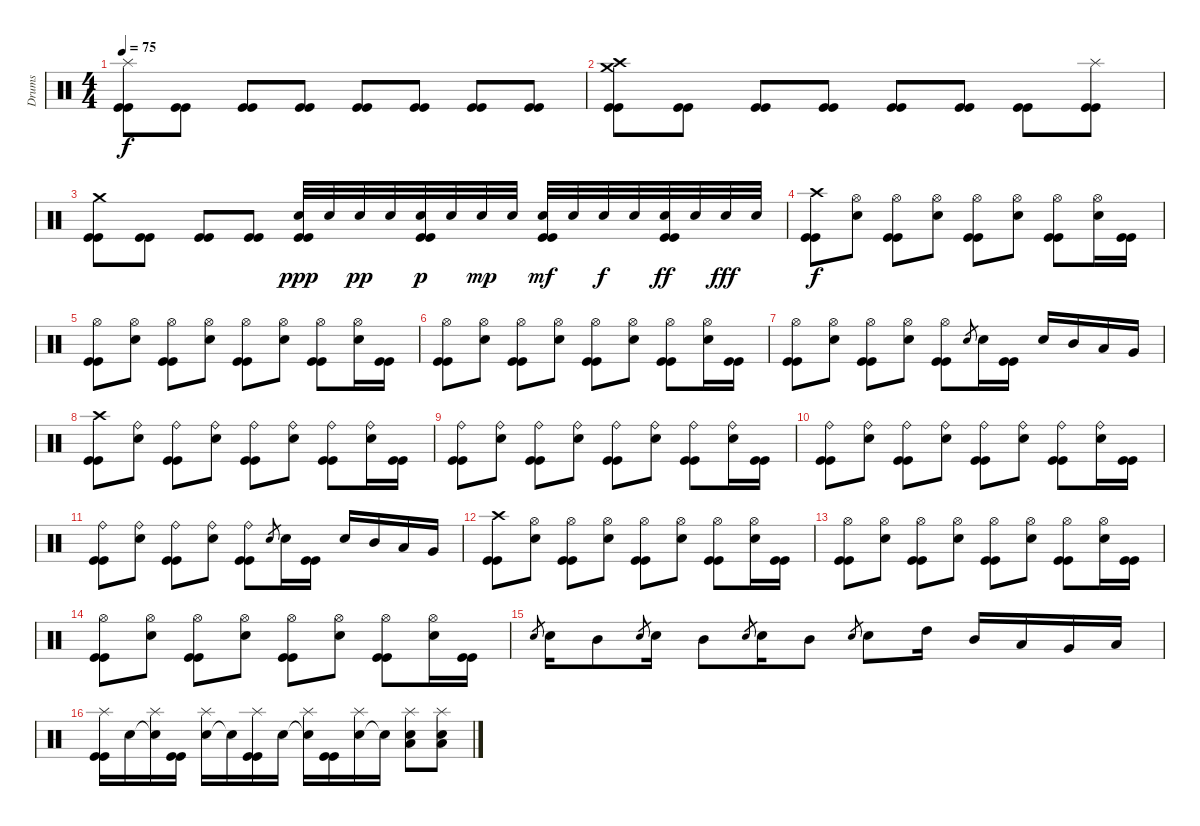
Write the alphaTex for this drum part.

\track ("Drums" "Drums") {instrument percussion}
\staff {score}
\articulation defaults
\ts (4 4)
\tempo 75
\clef neutral
\ks c
("Splash (hit)" "Kick (hit)" "Kick (hit)").8{dy f} ("Kick (hit)" "Kick (hit)").8 ("Kick (hit)" "Kick (hit)").8 ("Kick (hit)" "Kick (hit)").8 ("Kick (hit)" "Kick (hit)").8 ("Kick (hit)" "Kick (hit)").8 ("Kick (hit)" "Kick (hit)").8 ("Kick (hit)" "Kick (hit)").8 |
("Crash high (hit)" "Crash medium (hit)" "Kick (hit)" "Kick (hit)").8 ("Kick (hit)" "Kick (hit)").8 ("Kick (hit)" "Kick (hit)").8 ("Kick (hit)" "Kick (hit)").8 ("Kick (hit)" "Kick (hit)").8 ("Kick (hit)" "Kick (hit)").8 ("Kick (hit)" "Kick (hit)").8 ("Splash (hit)" "Kick (hit)" "Kick (hit)").8 |
("Crash medium (hit)" "Kick (hit)" "Kick (hit)").8 ("Kick (hit)" "Kick (hit)").8 ("Kick (hit)" "Kick (hit)").8 ("Kick (hit)" "Kick (hit)").8 ("Kick (hit)" "Kick (hit)" "Snare (hit) 2").32{dy ppp} "Snare (hit) 2".32 "Snare (hit) 2".32{dy pp} "Snare (hit) 2".32 ("Kick (hit)" "Kick (hit)" "Snare (hit) 2").32{dy p} "Snare (hit) 2".32 "Snare (hit) 2".32{dy mp} "Snare (hit) 2".32 ("Kick (hit)" "Kick (hit)" "Snare (hit) 2").32{dy mf} "Snare (hit) 2".32 "Snare (hit) 2".32{dy f} "Snare (hit) 2".32 ("Kick (hit)" "Kick (hit)" "Snare (hit) 2").32{dy ff} "Snare (hit) 2".32 "Snare (hit) 2".32{dy fff} "Snare (hit) 2".32 |
("Crash high (hit)" "Kick (hit)" "Kick (hit)").8{dy f} ("Hi-Hat (open)" "Snare (hit) 2").8 ("Hi-Hat (open)" "Kick (hit)" "Kick (hit)").8 ("Hi-Hat (open)" "Snare (hit) 2").8 ("Hi-Hat (open)" "Kick (hit)" "Kick (hit)").8 ("Hi-Hat (open)" "Snare (hit) 2").8 ("Hi-Hat (open)" "Kick (hit)" "Kick (hit)").8 ("Hi-Hat (open)" "Snare (hit) 2").16 ("Kick (hit)" "Kick (hit)").16 |
("Hi-Hat (open)" "Kick (hit)" "Kick (hit)").8 ("Hi-Hat (open)" "Snare (hit) 2").8 ("Hi-Hat (open)" "Kick (hit)" "Kick (hit)").8 ("Hi-Hat (open)" "Snare (hit) 2").8 ("Hi-Hat (open)" "Kick (hit)" "Kick (hit)").8 ("Hi-Hat (open)" "Snare (hit) 2").8 ("Hi-Hat (open)" "Kick (hit)" "Kick (hit)").8 ("Hi-Hat (open)" "Snare (hit) 2").16 ("Kick (hit)" "Kick (hit)").16 |
("Hi-Hat (open)" "Kick (hit)" "Kick (hit)").8 ("Hi-Hat (open)" "Snare (hit) 2").8 ("Hi-Hat (open)" "Kick (hit)" "Kick (hit)").8 ("Hi-Hat (open)" "Snare (hit) 2").8 ("Hi-Hat (open)" "Kick (hit)" "Kick (hit)").8 ("Hi-Hat (open)" "Snare (hit) 2").8 ("Hi-Hat (open)" "Kick (hit)" "Kick (hit)").8 ("Hi-Hat (open)" "Snare (hit) 2").16 ("Kick (hit)" "Kick (hit)").16 |
("Hi-Hat (open)" "Kick (hit)" "Kick (hit)").8 ("Hi-Hat (open)" "Snare (hit) 2").8 ("Hi-Hat (open)" "Kick (hit)" "Kick (hit)").8 ("Hi-Hat (open)" "Snare (hit) 2").8 ("Hi-Hat (open)" "Kick (hit)" "Kick (hit)").8 "Snare (hit) 2".8{gr} "Snare (hit) 2".16 ("Kick (hit)" "Kick (hit)").16 "Snare (hit) 2".16 "Mid Tom (hit)".16 "Low Tom (hit)".16 "Very Low Tom (hit)".16 |
("Crash high (hit)" "Kick (hit)" "Kick (hit)").8 ("Ride (bell)" "Snare (hit) 2").8 ("Ride (bell)" "Kick (hit)" "Kick (hit)").8 ("Ride (bell)" "Snare (hit) 2").8 ("Ride (bell)" "Kick (hit)" "Kick (hit)").8 ("Ride (bell)" "Snare (hit) 2").8 ("Ride (bell)" "Kick (hit)" "Kick (hit)").8 ("Ride (bell)" "Snare (hit) 2").16 ("Kick (hit)" "Kick (hit)").16 |
("Ride (bell)" "Kick (hit)" "Kick (hit)").8 ("Ride (bell)" "Snare (hit) 2").8 ("Ride (bell)" "Kick (hit)" "Kick (hit)").8 ("Ride (bell)" "Snare (hit) 2").8 ("Ride (bell)" "Kick (hit)" "Kick (hit)").8 ("Ride (bell)" "Snare (hit) 2").8 ("Ride (bell)" "Kick (hit)" "Kick (hit)").8 ("Ride (bell)" "Snare (hit) 2").16 ("Kick (hit)" "Kick (hit)").16 |
("Ride (bell)" "Kick (hit)" "Kick (hit)").8 ("Ride (bell)" "Snare (hit) 2").8 ("Ride (bell)" "Kick (hit)" "Kick (hit)").8 ("Ride (bell)" "Snare (hit) 2").8 ("Ride (bell)" "Kick (hit)" "Kick (hit)").8 ("Ride (bell)" "Snare (hit) 2").8 ("Ride (bell)" "Kick (hit)" "Kick (hit)").8 ("Ride (bell)" "Snare (hit) 2").16 ("Kick (hit)" "Kick (hit)").16 |
("Ride (bell)" "Kick (hit)" "Kick (hit)").8 ("Ride (bell)" "Snare (hit) 2").8 ("Ride (bell)" "Kick (hit)" "Kick (hit)").8 ("Ride (bell)" "Snare (hit) 2").8 ("Ride (bell)" "Kick (hit)" "Kick (hit)").8 "Snare (hit) 2".8{gr} "Snare (hit) 2".16 ("Kick (hit)" "Kick (hit)").16 "Snare (hit) 2".16 "Mid Tom (hit)".16 "Low Tom (hit)".16 "Very Low Tom (hit)".16 |
("Crash high (hit)" "Kick (hit)" "Kick (hit)").8 ("Hi-Hat (open)" "Snare (hit) 2").8 ("Hi-Hat (open)" "Kick (hit)" "Kick (hit)").8 ("Hi-Hat (open)" "Snare (hit) 2").8 ("Hi-Hat (open)" "Kick (hit)" "Kick (hit)").8 ("Hi-Hat (open)" "Snare (hit) 2").8 ("Hi-Hat (open)" "Kick (hit)" "Kick (hit)").8 ("Hi-Hat (open)" "Snare (hit) 2").16 ("Kick (hit)" "Kick (hit)").16 |
("Hi-Hat (open)" "Kick (hit)" "Kick (hit)").8 ("Hi-Hat (open)" "Snare (hit) 2").8 ("Hi-Hat (open)" "Kick (hit)" "Kick (hit)").8 ("Hi-Hat (open)" "Snare (hit) 2").8 ("Hi-Hat (open)" "Kick (hit)" "Kick (hit)").8 ("Hi-Hat (open)" "Snare (hit) 2").8 ("Hi-Hat (open)" "Kick (hit)" "Kick (hit)").8 ("Hi-Hat (open)" "Snare (hit) 2").16 ("Kick (hit)" "Kick (hit)").16 |
("Hi-Hat (open)" "Kick (hit)" "Kick (hit)").8 ("Hi-Hat (open)" "Snare (hit) 2").8 ("Hi-Hat (open)" "Kick (hit)" "Kick (hit)").8 ("Hi-Hat (open)" "Snare (hit) 2").8 ("Hi-Hat (open)" "Kick (hit)" "Kick (hit)").8 ("Hi-Hat (open)" "Snare (hit) 2").8 ("Hi-Hat (open)" "Kick (hit)" "Kick (hit)").8 ("Hi-Hat (open)" "Snare (hit) 2").16 ("Kick (hit)" "Kick (hit)").16 |
"Snare (hit) 2".8{gr} "Snare (hit) 2".16 "Mid Tom (hit)".8 "Snare (hit) 2".8{gr} "Snare (hit) 2".16 "Mid Tom (hit)".8 "Snare (hit) 2".8{gr} "Snare (hit) 2".16 "Mid Tom (hit)".8 "Snare (hit) 2".8{gr} "Snare (hit) 2".8 "High Tom (hit)".16 "Mid Tom (hit)".16 "Low Tom (hit)".16 "Very Low Tom (hit)".16 "Low Floor Tom (hit)".16 |
("Kick (hit)" "Kick (hit)" "Splash (hit)").16 "Snare (hit) 2".16 ("Snare (hit)"{t} "Splash (hit)").16 ("Kick (hit)" "Kick (hit)").16 ("Snare (hit) 2" "Splash (hit)").16 "Snare (hit)"{t}.16 ("Kick (hit)" "Kick (hit)" "Splash (hit)").16 "Snare (hit) 2".16 ("Snare (hit)"{t} "Splash (hit)").16 ("Kick (hit)" "Kick (hit)").16 ("Snare (hit) 2" "Splash (hit)").16 "Snare (hit)"{t}.16 ("Low Floor Tom (hit)" "Snare (hit) 2" "Splash (hit)").8 ("Low Floor Tom (hit)" "Snare (hit) 2" "Splash (hit)").8
